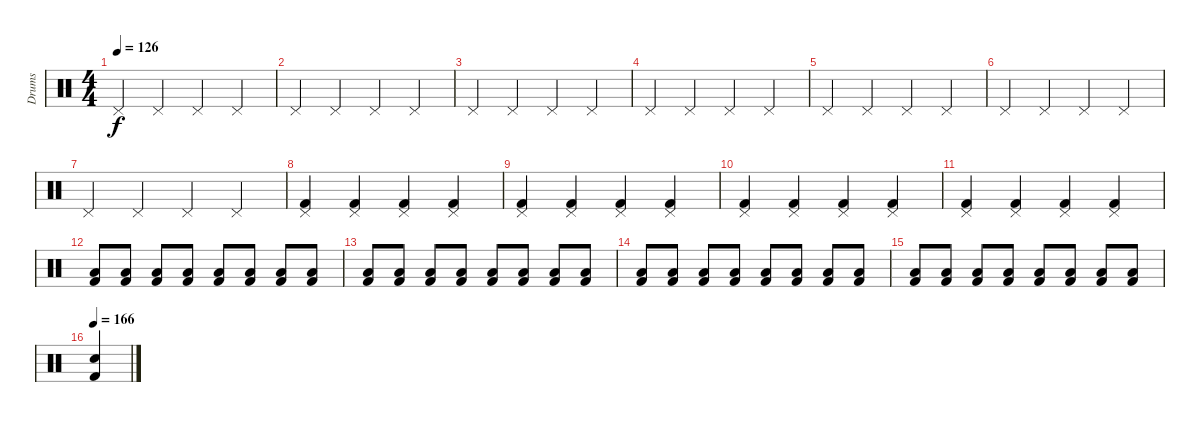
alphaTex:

\track ("Drums" "Drums") {instrument percussion}
\staff {score}
\articulation defaults
\ts (4 4)
\tempo 126
\clef neutral
\ks c "Pedal Hi-Hat (hit)".4{dy f} "Pedal Hi-Hat (hit)".4 "Pedal Hi-Hat (hit)".4 "Pedal Hi-Hat (hit)".4
|
"Pedal Hi-Hat (hit)".4 "Pedal Hi-Hat (hit)".4 "Pedal Hi-Hat (hit)".4 "Pedal Hi-Hat (hit)".4 |
"Pedal Hi-Hat (hit)".4 "Pedal Hi-Hat (hit)".4 "Pedal Hi-Hat (hit)".4 "Pedal Hi-Hat (hit)".4 |
"Pedal Hi-Hat (hit)".4 "Pedal Hi-Hat (hit)".4 "Pedal Hi-Hat (hit)".4 "Pedal Hi-Hat (hit)".4 |
"Pedal Hi-Hat (hit)".4 "Pedal Hi-Hat (hit)".4 "Pedal Hi-Hat (hit)".4 "Pedal Hi-Hat (hit)".4 |
"Pedal Hi-Hat (hit)".4 "Pedal Hi-Hat (hit)".4 "Pedal Hi-Hat (hit)".4 "Pedal Hi-Hat (hit)".4 |
"Pedal Hi-Hat (hit)".4 "Pedal Hi-Hat (hit)".4 "Pedal Hi-Hat (hit)".4 "Pedal Hi-Hat (hit)".4 |
("Pedal Hi-Hat (hit)" "Kick (hit) 2").4 ("Pedal Hi-Hat (hit)" "Kick (hit) 2").4 ("Pedal Hi-Hat (hit)" "Kick (hit) 2").4 ("Pedal Hi-Hat (hit)" "Kick (hit) 2").4 |
("Pedal Hi-Hat (hit)" "Kick (hit) 2").4 ("Pedal Hi-Hat (hit)" "Kick (hit) 2").4 ("Pedal Hi-Hat (hit)" "Kick (hit) 2").4 ("Pedal Hi-Hat (hit)" "Kick (hit) 2").4 |
("Pedal Hi-Hat (hit)" "Kick (hit) 2").4 ("Pedal Hi-Hat (hit)" "Kick (hit) 2").4 ("Pedal Hi-Hat (hit)" "Kick (hit) 2").4 ("Pedal Hi-Hat (hit)" "Kick (hit) 2").4 |
("Pedal Hi-Hat (hit)" "Kick (hit) 2").4 ("Pedal Hi-Hat (hit)" "Kick (hit) 2").4 ("Pedal Hi-Hat (hit)" "Kick (hit) 2").4 ("Pedal Hi-Hat (hit)" "Kick (hit) 2").4 |
("Low Floor Tom (hit)" "Kick (hit) 2").8 ("Low Floor Tom (hit)" "Kick (hit) 2").8 ("Low Floor Tom (hit)" "Kick (hit) 2").8 ("Low Floor Tom (hit)" "Kick (hit) 2").8 ("Low Floor Tom (hit)" "Kick (hit) 2").8 ("Low Floor Tom (hit)" "Kick (hit) 2").8 ("Low Floor Tom (hit)" "Kick (hit) 2").8 ("Low Floor Tom (hit)" "Kick (hit) 2").8 |
("Low Floor Tom (hit)" "Kick (hit) 2").8 ("Low Floor Tom (hit)" "Kick (hit) 2").8 ("Low Floor Tom (hit)" "Kick (hit) 2").8 ("Low Floor Tom (hit)" "Kick (hit) 2").8 ("Low Floor Tom (hit)" "Kick (hit) 2").8 ("Low Floor Tom (hit)" "Kick (hit) 2").8 ("Low Floor Tom (hit)" "Kick (hit) 2").8 ("Low Floor Tom (hit)" "Kick (hit) 2").8 |
("Low Floor Tom (hit)" "Kick (hit) 2").8 ("Low Floor Tom (hit)" "Kick (hit) 2").8 ("Low Floor Tom (hit)" "Kick (hit) 2").8 ("Low Floor Tom (hit)" "Kick (hit) 2").8 ("Low Floor Tom (hit)" "Kick (hit) 2").8 ("Low Floor Tom (hit)" "Kick (hit) 2").8 ("Low Floor Tom (hit)" "Kick (hit) 2").8 ("Low Floor Tom (hit)" "Kick (hit) 2").8 |
("Low Floor Tom (hit)" "Kick (hit) 2").8 ("Low Floor Tom (hit)" "Kick (hit) 2").8 ("Low Floor Tom (hit)" "Kick (hit) 2").8 ("Low Floor Tom (hit)" "Kick (hit) 2").8 ("Low Floor Tom (hit)" "Kick (hit) 2").8 ("Low Floor Tom (hit)" "Kick (hit) 2").8 ("Low Floor Tom (hit)" "Kick (hit) 2").8 ("Low Floor Tom (hit)" "Kick (hit) 2").8 |
\tempo 166
("Snare (hit) 2" "Kick (hit) 2").4
